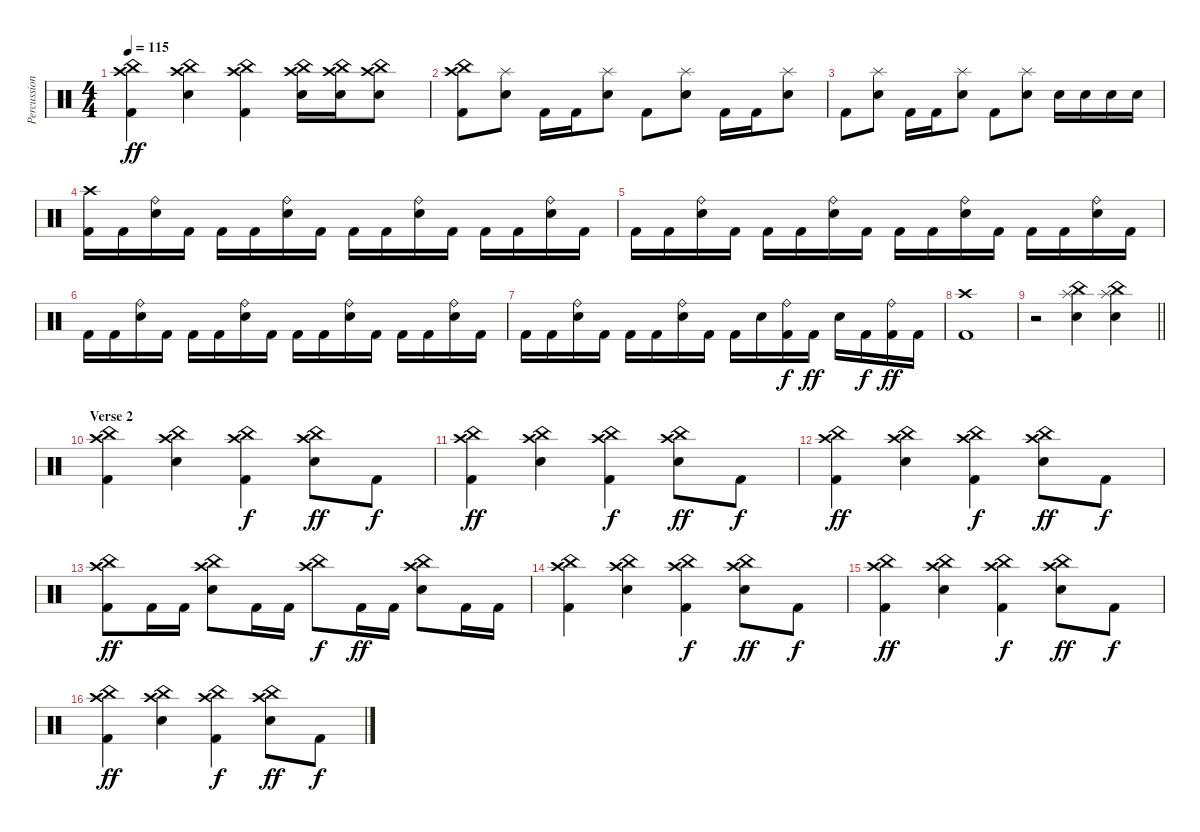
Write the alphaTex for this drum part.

\track ("Percussion" "Percussion") {instrument percussion}
\staff {score}
\articulation defaults
\ts (4 4)
\tempo 115
\clef neutral
\ks c
("Kick (hit) 2" "Crash high (hit)" "China (hit)").4{dy ff} ("Electric Snare (hit)" "Crash high (hit)" "China (hit)").4 ("Kick (hit) 2" "Crash high (hit)" "China (hit)").4 ("Electric Snare (hit)" "Crash high (hit)" "China (hit)").16 ("Electric Snare (hit)" "Crash high (hit)" "China (hit)").16 ("Electric Snare (hit)" "Crash high (hit)" "China (hit)").8 |
("Kick (hit) 2" "Crash high (hit)" "China (hit)").8 ("Electric Snare (hit)" "Splash (hit)").8 "Kick (hit) 2".16 "Kick (hit) 2".16 ("Electric Snare (hit)" "Splash (hit)").8 "Kick (hit) 2".8 ("Electric Snare (hit)" "Splash (hit)").8 "Kick (hit) 2".16 "Kick (hit) 2".16 ("Electric Snare (hit)" "Splash (hit)").8 |
"Kick (hit) 2".8 ("Electric Snare (hit)" "Splash (hit)").8 "Kick (hit) 2".16 "Kick (hit) 2".16 ("Electric Snare (hit)" "Splash (hit)").8 "Kick (hit) 2".8 ("Electric Snare (hit)" "Splash (hit)").8 "Electric Snare (hit)".16 "Electric Snare (hit)".16 "Electric Snare (hit)".16 "Electric Snare (hit)".16 |
("Kick (hit) 2" "Crash high (hit)").16 "Kick (hit) 2".16 ("Electric Snare (hit)" "Ride (bell)").16 "Kick (hit) 2".16 "Kick (hit) 2".16 "Kick (hit) 2".16 ("Electric Snare (hit)" "Ride (bell)").16 "Kick (hit) 2".16 "Kick (hit) 2".16 "Kick (hit) 2".16 ("Electric Snare (hit)" "Ride (bell)").16 "Kick (hit) 2".16 "Kick (hit) 2".16 "Kick (hit) 2".16 ("Electric Snare (hit)" "Ride (bell)").16 "Kick (hit) 2".16 |
"Kick (hit) 2".16 "Kick (hit) 2".16 ("Electric Snare (hit)" "Ride (bell)").16 "Kick (hit) 2".16 "Kick (hit) 2".16 "Kick (hit) 2".16 ("Electric Snare (hit)" "Ride (bell)").16 "Kick (hit) 2".16 "Kick (hit) 2".16 "Kick (hit) 2".16 ("Electric Snare (hit)" "Ride (bell)").16 "Kick (hit) 2".16 "Kick (hit) 2".16 "Kick (hit) 2".16 ("Electric Snare (hit)" "Ride (bell)").16 "Kick (hit) 2".16 |
"Kick (hit) 2".16 "Kick (hit) 2".16 ("Electric Snare (hit)" "Ride (bell)").16 "Kick (hit) 2".16 "Kick (hit) 2".16 "Kick (hit) 2".16 ("Electric Snare (hit)" "Ride (bell)").16 "Kick (hit) 2".16 "Kick (hit) 2".16 "Kick (hit) 2".16 ("Electric Snare (hit)" "Ride (bell)").16 "Kick (hit) 2".16 "Kick (hit) 2".16 "Kick (hit) 2".16 ("Electric Snare (hit)" "Ride (bell)").16 "Kick (hit) 2".16 |
"Kick (hit) 2".16 "Kick (hit) 2".16 ("Electric Snare (hit)" "Ride (bell)").16 "Kick (hit) 2".16 "Kick (hit) 2".16 "Kick (hit) 2".16 ("Electric Snare (hit)" "Ride (bell)").16 "Kick (hit) 2".16 "Kick (hit) 2".16 "Electric Snare (hit)".16 ("Kick (hit) 2" "Ride (bell)").16{dy f} "Kick (hit) 2".16{dy ff} "Electric Snare (hit)".16 "Kick (hit) 2".16{dy f} ("Kick (hit) 2" "Ride (bell)").16{dy ff} "Kick (hit) 2".16 |
("Kick (hit) 2" "Crash high (hit)").1 |
\barLineRight lightlight
r.2 ("Electric Snare (hit)" "Splash (hit)" "China (hit)").4 ("Electric Snare (hit)" "Splash (hit)" "China (hit)").4 |
\section ("" "Verse 2")
("Kick (hit) 2" "Crash high (hit)" "China (hit)").4 ("Electric Snare (hit)" "Crash high (hit)" "China (hit)").4 ("Kick (hit) 2" "Crash high (hit)" "China (hit)").4{dy f} ("Electric Snare (hit)" "Crash high (hit)" "China (hit)").8{dy ff} "Kick (hit) 2".8{dy f} |
("Kick (hit) 2" "Crash high (hit)" "China (hit)").4{dy ff} ("Electric Snare (hit)" "Crash high (hit)" "China (hit)").4 ("Kick (hit) 2" "Crash high (hit)" "China (hit)").4{dy f} ("Electric Snare (hit)" "Crash high (hit)" "China (hit)").8{dy ff} "Kick (hit) 2".8{dy f} |
("Kick (hit) 2" "Crash high (hit)" "China (hit)").4{dy ff} ("Electric Snare (hit)" "Crash high (hit)" "China (hit)").4 ("Kick (hit) 2" "Crash high (hit)" "China (hit)").4{dy f} ("Electric Snare (hit)" "Crash high (hit)" "China (hit)").8{dy ff} "Kick (hit) 2".8{dy f} |
("Kick (hit) 2" "Crash high (hit)" "China (hit)").8{dy ff} "Kick (hit) 2".16 "Kick (hit) 2".16 ("Electric Snare (hit)" "Crash high (hit)" "China (hit)").8 "Kick (hit) 2".16 "Kick (hit) 2".16 ("Crash high (hit)" "China (hit)").8{dy f} "Kick (hit) 2".16{dy ff} "Kick (hit) 2".16 ("Electric Snare (hit)" "Crash high (hit)" "China (hit)").8 "Kick (hit) 2".16 "Kick (hit) 2".16 |
("Kick (hit) 2" "Crash high (hit)" "China (hit)").4 ("Electric Snare (hit)" "Crash high (hit)" "China (hit)").4 ("Kick (hit) 2" "Crash high (hit)" "China (hit)").4{dy f} ("Electric Snare (hit)" "Crash high (hit)" "China (hit)").8{dy ff} "Kick (hit) 2".8{dy f} |
("Kick (hit) 2" "Crash high (hit)" "China (hit)").4{dy ff} ("Electric Snare (hit)" "Crash high (hit)" "China (hit)").4 ("Kick (hit) 2" "Crash high (hit)" "China (hit)").4{dy f} ("Electric Snare (hit)" "Crash high (hit)" "China (hit)").8{dy ff} "Kick (hit) 2".8{dy f} |
("Kick (hit) 2" "Crash high (hit)" "China (hit)").4{dy ff} ("Electric Snare (hit)" "Crash high (hit)" "China (hit)").4 ("Kick (hit) 2" "Crash high (hit)" "China (hit)").4{dy f} ("Electric Snare (hit)" "Crash high (hit)" "China (hit)").8{dy ff} "Kick (hit) 2".8{dy f}
